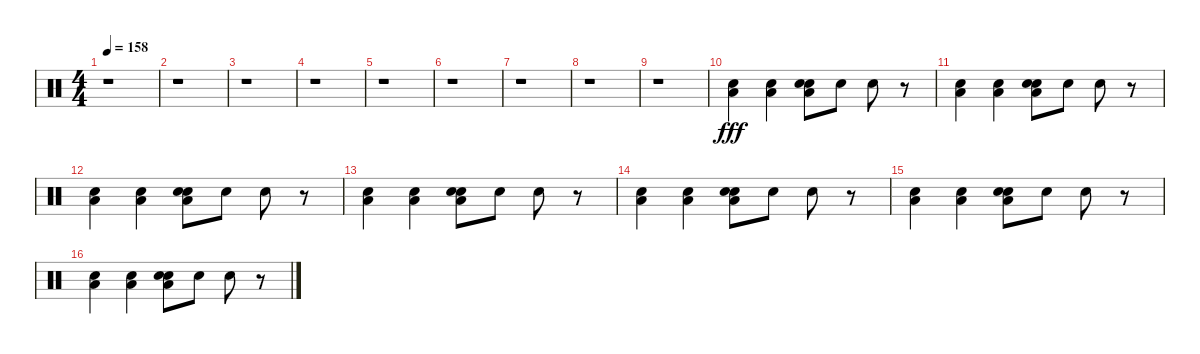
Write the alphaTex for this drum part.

\track "" {instrument percussion}
\staff {score}
\articulation defaults
\ts (4 4)
\tempo 158
\clef neutral
\ks c
r.1{dy f} |
r.1 |
r.1 |
r.1 |
r.1 |
r.1 |
r.1 |
r.1 |
r.1 |
("Low Floor Tom (hit)" "Snare (hit) 2").4{dy fff} ("Low Floor Tom (hit)" "Snare (hit) 2").4 ("Electric Snare (hit)" "Low Floor Tom (hit)" "Snare (hit) 2").8 "Electric Snare (hit)".8 "Electric Snare (hit)".8 r.8 |
("Low Floor Tom (hit)" "Snare (hit) 2").4 ("Low Floor Tom (hit)" "Snare (hit) 2").4 ("Electric Snare (hit)" "Low Floor Tom (hit)" "Snare (hit) 2").8 "Electric Snare (hit)".8 "Electric Snare (hit)".8 r.8 |
("Low Floor Tom (hit)" "Electric Snare (hit)").4 ("Low Floor Tom (hit)" "Electric Snare (hit)").4 ("Electric Snare (hit)" "Low Floor Tom (hit)" "Electric Snare (hit)").8 "Electric Snare (hit)".8 "Electric Snare (hit)".8 r.8 |
("Low Floor Tom (hit)" "Electric Snare (hit)").4 ("Low Floor Tom (hit)" "Electric Snare (hit)").4 ("Electric Snare (hit)" "Low Floor Tom (hit)" "Electric Snare (hit)").8 "Electric Snare (hit)".8 "Electric Snare (hit)".8 r.8 |
("Low Floor Tom (hit)" "Electric Snare (hit)").4 ("Low Floor Tom (hit)" "Electric Snare (hit)").4 ("Electric Snare (hit)" "Low Floor Tom (hit)" "Electric Snare (hit)").8 "Electric Snare (hit)".8 "Electric Snare (hit)".8 r.8 |
("Low Floor Tom (hit)" "Electric Snare (hit)").4 ("Low Floor Tom (hit)" "Electric Snare (hit)").4 ("Electric Snare (hit)" "Low Floor Tom (hit)" "Electric Snare (hit)").8 "Electric Snare (hit)".8 "Electric Snare (hit)".8 r.8 |
("Low Floor Tom (hit)" "Electric Snare (hit)").4 ("Low Floor Tom (hit)" "Electric Snare (hit)").4 ("Electric Snare (hit)" "Low Floor Tom (hit)" "Electric Snare (hit)").8 "Electric Snare (hit)".8 "Electric Snare (hit)".8 r.8
